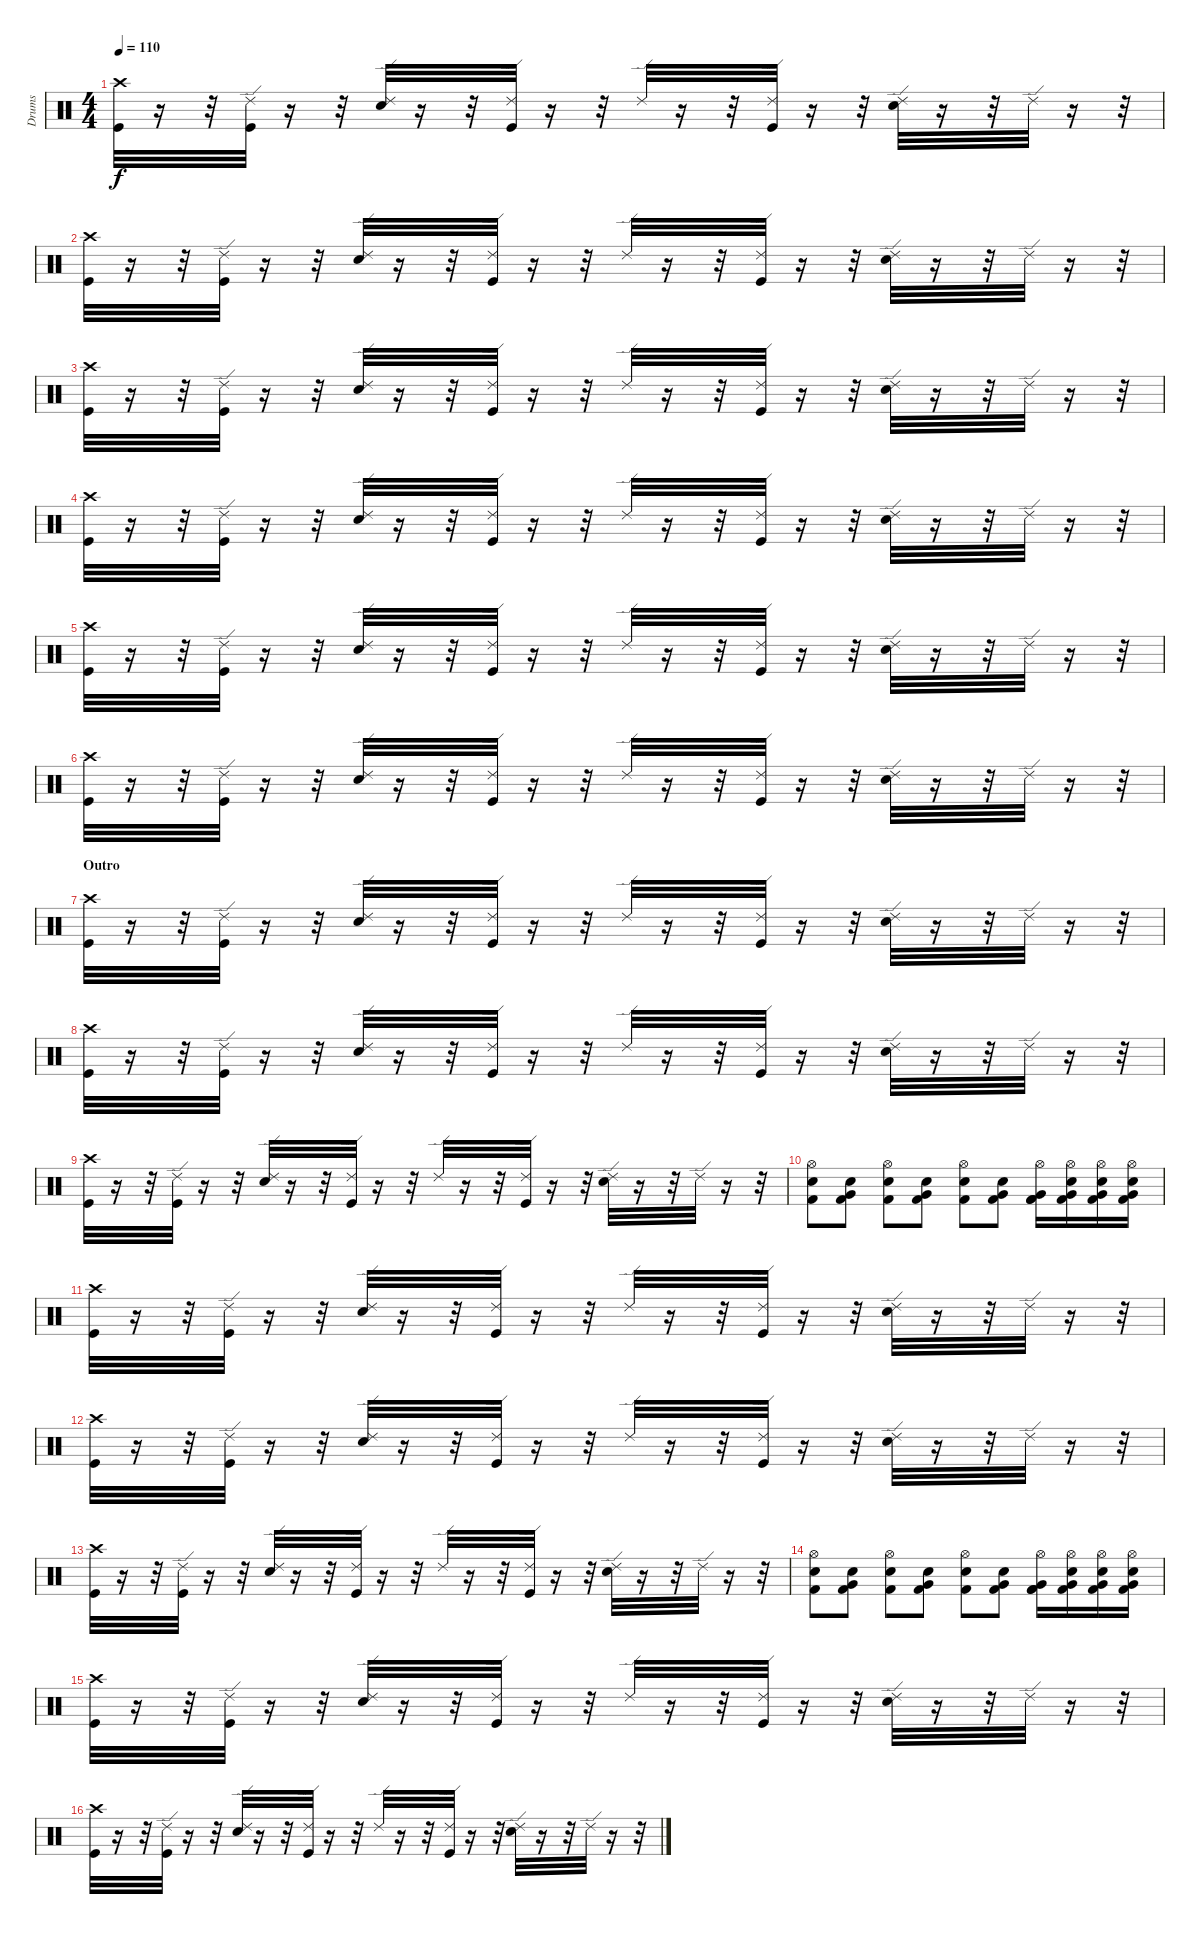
\track ("Drums" "Drums") {instrument percussion}
\staff {score}
\articulation defaults
\ts (4 4)
\tempo 110
\clef neutral
\ks c
("Kick (hit)" "Crash high (hit)").32{dy f} r.16 r.32 ("Ride (edge) 2" "Kick (hit)").32 r.16 r.32 ("Ride (edge) 2" "Electric Snare (hit)").32 r.16 r.32 ("Ride (edge) 2" "Kick (hit)").32 r.16 r.32 "Ride (edge) 2".32 r.16 r.32 ("Ride (edge) 2" "Kick (hit)").32 r.16 r.32 ("Ride (edge) 2" "Electric Snare (hit)").32 r.16 r.32 "Ride (edge) 2".32 r.16 r.32 |
("Kick (hit)" "Crash high (hit)").32 r.16 r.32 ("Ride (edge) 2" "Kick (hit)").32 r.16 r.32 ("Ride (edge) 2" "Electric Snare (hit)").32 r.16 r.32 ("Ride (edge) 2" "Kick (hit)").32 r.16 r.32 "Ride (edge) 2".32 r.16 r.32 ("Ride (edge) 2" "Kick (hit)").32 r.16 r.32 ("Ride (edge) 2" "Electric Snare (hit)").32 r.16 r.32 "Ride (edge) 2".32 r.16 r.32 |
("Kick (hit)" "Crash high (hit)").32 r.16 r.32 ("Ride (edge) 2" "Kick (hit)").32 r.16 r.32 ("Ride (edge) 2" "Electric Snare (hit)").32 r.16 r.32 ("Ride (edge) 2" "Kick (hit)").32 r.16 r.32 "Ride (edge) 2".32 r.16 r.32 ("Ride (edge) 2" "Kick (hit)").32 r.16 r.32 ("Ride (edge) 2" "Electric Snare (hit)").32 r.16 r.32 "Ride (edge) 2".32 r.16 r.32 |
("Kick (hit)" "Crash high (hit)").32 r.16 r.32 ("Ride (edge) 2" "Kick (hit)").32 r.16 r.32 ("Ride (edge) 2" "Electric Snare (hit)").32 r.16 r.32 ("Ride (edge) 2" "Kick (hit)").32 r.16 r.32 "Ride (edge) 2".32 r.16 r.32 ("Ride (edge) 2" "Kick (hit)").32 r.16 r.32 ("Ride (edge) 2" "Electric Snare (hit)").32 r.16 r.32 "Ride (edge) 2".32 r.16 r.32 |
("Kick (hit)" "Crash high (hit)").32 r.16 r.32 ("Ride (edge) 2" "Kick (hit)").32 r.16 r.32 ("Ride (edge) 2" "Electric Snare (hit)").32 r.16 r.32 ("Ride (edge) 2" "Kick (hit)").32 r.16 r.32 "Ride (edge) 2".32 r.16 r.32 ("Ride (edge) 2" "Kick (hit)").32 r.16 r.32 ("Ride (edge) 2" "Electric Snare (hit)").32 r.16 r.32 "Ride (edge) 2".32 r.16 r.32 |
("Kick (hit)" "Crash high (hit)").32 r.16 r.32 ("Ride (edge) 2" "Kick (hit)").32 r.16 r.32 ("Ride (edge) 2" "Electric Snare (hit)").32 r.16 r.32 ("Ride (edge) 2" "Kick (hit)").32 r.16 r.32 "Ride (edge) 2".32 r.16 r.32 ("Ride (edge) 2" "Kick (hit)").32 r.16 r.32 ("Ride (edge) 2" "Electric Snare (hit)").32 r.16 r.32 "Ride (edge) 2".32 r.16 r.32 |
\section ("" "Outro")
("Kick (hit)" "Crash high (hit)").32 r.16 r.32 ("Ride (edge) 2" "Kick (hit)").32 r.16 r.32 ("Ride (edge) 2" "Electric Snare (hit)").32 r.16 r.32 ("Ride (edge) 2" "Kick (hit)").32 r.16 r.32 "Ride (edge) 2".32 r.16 r.32 ("Ride (edge) 2" "Kick (hit)").32 r.16 r.32 ("Ride (edge) 2" "Electric Snare (hit)").32 r.16 r.32 "Ride (edge) 2".32 r.16 r.32 |
("Kick (hit)" "Crash high (hit)").32 r.16 r.32 ("Ride (edge) 2" "Kick (hit)").32 r.16 r.32 ("Ride (edge) 2" "Electric Snare (hit)").32 r.16 r.32 ("Ride (edge) 2" "Kick (hit)").32 r.16 r.32 "Ride (edge) 2".32 r.16 r.32 ("Ride (edge) 2" "Kick (hit)").32 r.16 r.32 ("Ride (edge) 2" "Electric Snare (hit)").32 r.16 r.32 "Ride (edge) 2".32 r.16 r.32 |
("Kick (hit)" "Crash high (hit)").32 r.16 r.32 ("Ride (edge) 2" "Kick (hit)").32 r.16 r.32 ("Ride (edge) 2" "Electric Snare (hit)").32 r.16 r.32 ("Ride (edge) 2" "Kick (hit)").32 r.16 r.32 "Ride (edge) 2".32 r.16 r.32 ("Ride (edge) 2" "Kick (hit)").32 r.16 r.32 ("Ride (edge) 2" "Electric Snare (hit)").32 r.16 r.32 "Ride (edge) 2".32 r.16 r.32 |
("Hi-Hat (open)" "Kick (hit) 2" "Snare (hit) 2").8 ("Very Low Tom (hit)" "Kick (hit) 2" "Snare (hit) 2").8 ("Hi-Hat (open)" "Kick (hit) 2" "Snare (hit) 2").8 ("Very Low Tom (hit)" "Kick (hit) 2" "Snare (hit) 2").8 ("Hi-Hat (open)" "Kick (hit) 2" "Snare (hit) 2").8 ("Very Low Tom (hit)" "Kick (hit) 2" "Snare (hit) 2").8 ("Very Low Tom (hit)" "Hi-Hat (open)" "Kick (hit) 2" "Kick (hit) 2").16 ("Very Low Tom (hit)" "Hi-Hat (open)" "Kick (hit) 2" "Snare (hit) 2").16 ("Very Low Tom (hit)" "Hi-Hat (open)" "Kick (hit) 2" "Snare (hit) 2").16 ("Very Low Tom (hit)" "Hi-Hat (open)" "Kick (hit) 2" "Snare (hit) 2").16 |
("Kick (hit)" "Crash high (hit)").32 r.16 r.32 ("Ride (edge) 2" "Kick (hit)").32 r.16 r.32 ("Ride (edge) 2" "Electric Snare (hit)").32 r.16 r.32 ("Ride (edge) 2" "Kick (hit)").32 r.16 r.32 "Ride (edge) 2".32 r.16 r.32 ("Ride (edge) 2" "Kick (hit)").32 r.16 r.32 ("Ride (edge) 2" "Electric Snare (hit)").32 r.16 r.32 "Ride (edge) 2".32 r.16 r.32 |
("Kick (hit)" "Crash high (hit)").32 r.16 r.32 ("Ride (edge) 2" "Kick (hit)").32 r.16 r.32 ("Ride (edge) 2" "Electric Snare (hit)").32 r.16 r.32 ("Ride (edge) 2" "Kick (hit)").32 r.16 r.32 "Ride (edge) 2".32 r.16 r.32 ("Ride (edge) 2" "Kick (hit)").32 r.16 r.32 ("Ride (edge) 2" "Electric Snare (hit)").32 r.16 r.32 "Ride (edge) 2".32 r.16 r.32 |
("Kick (hit)" "Crash high (hit)").32 r.16 r.32 ("Ride (edge) 2" "Kick (hit)").32 r.16 r.32 ("Ride (edge) 2" "Electric Snare (hit)").32 r.16 r.32 ("Ride (edge) 2" "Kick (hit)").32 r.16 r.32 "Ride (edge) 2".32 r.16 r.32 ("Ride (edge) 2" "Kick (hit)").32 r.16 r.32 ("Ride (edge) 2" "Electric Snare (hit)").32 r.16 r.32 "Ride (edge) 2".32 r.16 r.32 |
("Hi-Hat (open)" "Kick (hit) 2" "Snare (hit) 2").8 ("Very Low Tom (hit)" "Kick (hit) 2" "Snare (hit) 2").8 ("Hi-Hat (open)" "Kick (hit) 2" "Snare (hit) 2").8 ("Very Low Tom (hit)" "Kick (hit) 2" "Snare (hit) 2").8 ("Hi-Hat (open)" "Kick (hit) 2" "Snare (hit) 2").8 ("Very Low Tom (hit)" "Kick (hit) 2" "Snare (hit) 2").8 ("Very Low Tom (hit)" "Hi-Hat (open)" "Kick (hit) 2" "Kick (hit) 2").16 ("Very Low Tom (hit)" "Hi-Hat (open)" "Kick (hit) 2" "Snare (hit) 2").16 ("Very Low Tom (hit)" "Hi-Hat (open)" "Kick (hit) 2" "Snare (hit) 2").16 ("Very Low Tom (hit)" "Hi-Hat (open)" "Kick (hit) 2" "Snare (hit) 2").16 |
("Kick (hit)" "Crash high (hit)").32 r.16 r.32 ("Ride (edge) 2" "Kick (hit)").32 r.16 r.32 ("Ride (edge) 2" "Electric Snare (hit)").32 r.16 r.32 ("Ride (edge) 2" "Kick (hit)").32 r.16 r.32 "Ride (edge) 2".32 r.16 r.32 ("Ride (edge) 2" "Kick (hit)").32 r.16 r.32 ("Ride (edge) 2" "Electric Snare (hit)").32 r.16 r.32 "Ride (edge) 2".32 r.16 r.32 |
("Kick (hit)" "Crash high (hit)").32 r.16 r.32 ("Ride (edge) 2" "Kick (hit)").32 r.16 r.32 ("Ride (edge) 2" "Electric Snare (hit)").32 r.16 r.32 ("Ride (edge) 2" "Kick (hit)").32 r.16 r.32 "Ride (edge) 2".32 r.16 r.32 ("Ride (edge) 2" "Kick (hit)").32 r.16 r.32 ("Ride (edge) 2" "Electric Snare (hit)").32 r.16 r.32 "Ride (edge) 2".32 r.16 r.32
